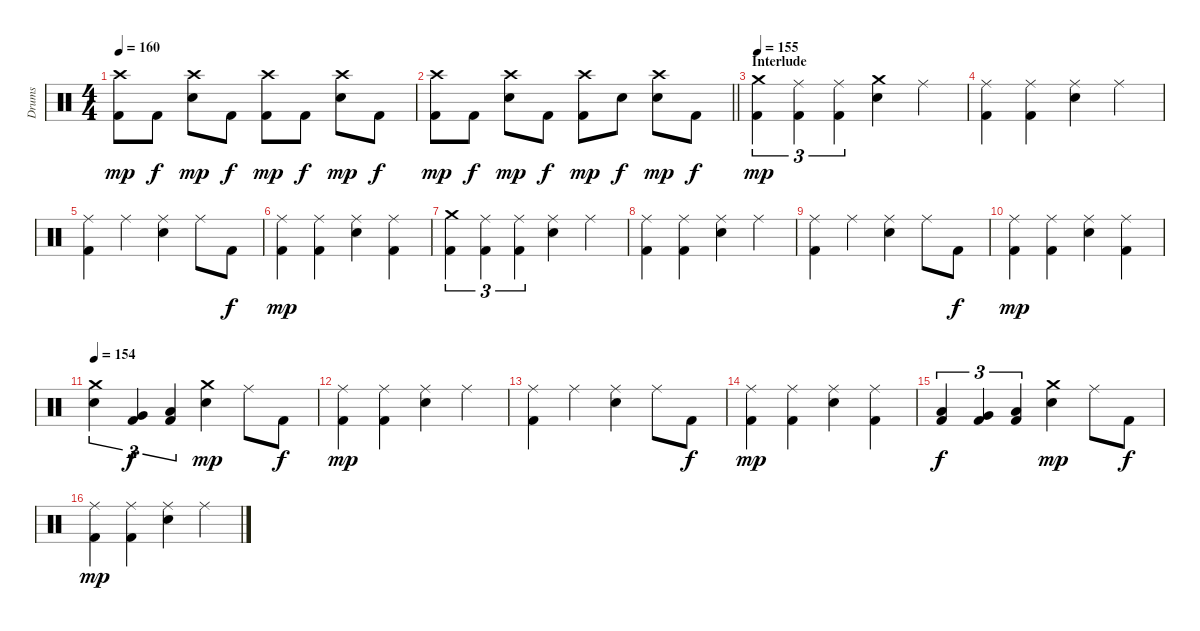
\track ("Drums" "Drums") {instrument percussion}
\staff {score}
\articulation defaults
\ts (4 4)
\tempo 160
\clef neutral
\ks c
("Crash high (hit)" "Kick (hit) 2").8{dy mp} "Kick (hit) 2".8{dy f} ("Crash high (hit)" "Electric Snare (hit)").8{dy mp} "Kick (hit) 2".8{dy f} ("Crash high (hit)" "Kick (hit) 2").8{dy mp} "Kick (hit) 2".8{dy f} ("Crash high (hit)" "Electric Snare (hit)").8{dy mp} "Kick (hit) 2".8{dy f} |
\barLineRight lightlight
("Crash high (hit)" "Kick (hit) 2").8{dy mp} "Kick (hit) 2".8{dy f} ("Crash high (hit)" "Electric Snare (hit)").8{dy mp} "Kick (hit) 2".8{dy f} ("Crash high (hit)" "Kick (hit) 2").8{dy mp} "Electric Snare (hit)".8{dy f} ("Crash high (hit)" "Electric Snare (hit)").8{dy mp} "Kick (hit) 2".8{dy f} |
\section ("" "Interlude")
\tempo 158
\tempo 155
("Crash medium (hit)" "Kick (hit) 2").4{tu (3 2) dy mp} ("Ride (middle)" "Kick (hit) 2").4{tu (3 2)} ("Ride (middle)" "Kick (hit) 2").4{tu (3 2)} ("Crash medium (hit)" "Electric Snare (hit)").4 "Ride (middle)".4 |
("Ride (middle)" "Kick (hit) 2").4 ("Ride (middle)" "Kick (hit) 2").4 ("Ride (middle)" "Electric Snare (hit)").4 "Ride (middle)".4 |
("Ride (middle)" "Kick (hit) 2").4 "Ride (middle)".4 ("Ride (middle)" "Electric Snare (hit)").4 "Ride (middle)".8 "Kick (hit) 2".8{dy f} |
("Ride (middle)" "Kick (hit) 2").4{dy mp} ("Ride (middle)" "Kick (hit) 2").4 ("Ride (middle)" "Electric Snare (hit)").4 ("Ride (middle)" "Kick (hit) 2").4 |
("Crash medium (hit)" "Kick (hit) 2").4{tu (3 2)} ("Ride (middle)" "Kick (hit) 2").4{tu (3 2)} ("Ride (middle)" "Kick (hit) 2").4{tu (3 2)} ("Ride (middle)" "Electric Snare (hit)").4 "Ride (middle)".4 |
("Ride (middle)" "Kick (hit) 2").4 ("Ride (middle)" "Kick (hit) 2").4 ("Ride (middle)" "Electric Snare (hit)").4 "Ride (middle)".4 |
("Ride (middle)" "Kick (hit) 2").4 "Ride (middle)".4 ("Ride (middle)" "Electric Snare (hit)").4 "Ride (middle)".8 "Kick (hit) 2".8{dy f} |
("Ride (middle)" "Kick (hit) 2").4{dy mp} ("Ride (middle)" "Kick (hit) 2").4 ("Ride (middle)" "Electric Snare (hit)").4 ("Ride (middle)" "Kick (hit) 2").4 |
\tempo 154
("Crash medium (hit)" "Electric Snare (hit)").4{tu (3 2)} ("Very Low Tom (hit)" "Kick (hit) 2").4{tu (3 2) dy f} ("Low Floor Tom (hit)" "Kick (hit) 2").4{tu (3 2)} ("Crash medium (hit)" "Electric Snare (hit)").4{dy mp} "Ride (middle)".8 "Kick (hit) 2".8{dy f} |
("Ride (middle)" "Kick (hit) 2").4{dy mp} ("Ride (middle)" "Kick (hit) 2").4 ("Ride (middle)" "Electric Snare (hit)").4 "Ride (middle)".4 |
("Ride (middle)" "Kick (hit) 2").4 "Ride (middle)".4 ("Ride (middle)" "Electric Snare (hit)").4 "Ride (middle)".8 "Kick (hit) 2".8{dy f} |
("Ride (middle)" "Kick (hit) 2").4{dy mp} ("Ride (middle)" "Kick (hit) 2").4 ("Ride (middle)" "Electric Snare (hit)").4 ("Ride (middle)" "Kick (hit) 2").4 |
("Low Tom (hit)" "Kick (hit) 2").4{tu (3 2) dy f} ("Very Low Tom (hit)" "Kick (hit) 2").4{tu (3 2)} ("Low Floor Tom (hit)" "Kick (hit) 2").4{tu (3 2)} ("Crash medium (hit)" "Electric Snare (hit)").4{dy mp} "Ride (middle)".8 "Kick (hit) 2".8{dy f} |
("Ride (middle)" "Kick (hit) 2").4{dy mp} ("Ride (middle)" "Kick (hit) 2").4 ("Ride (middle)" "Electric Snare (hit)").4 "Ride (middle)".4
